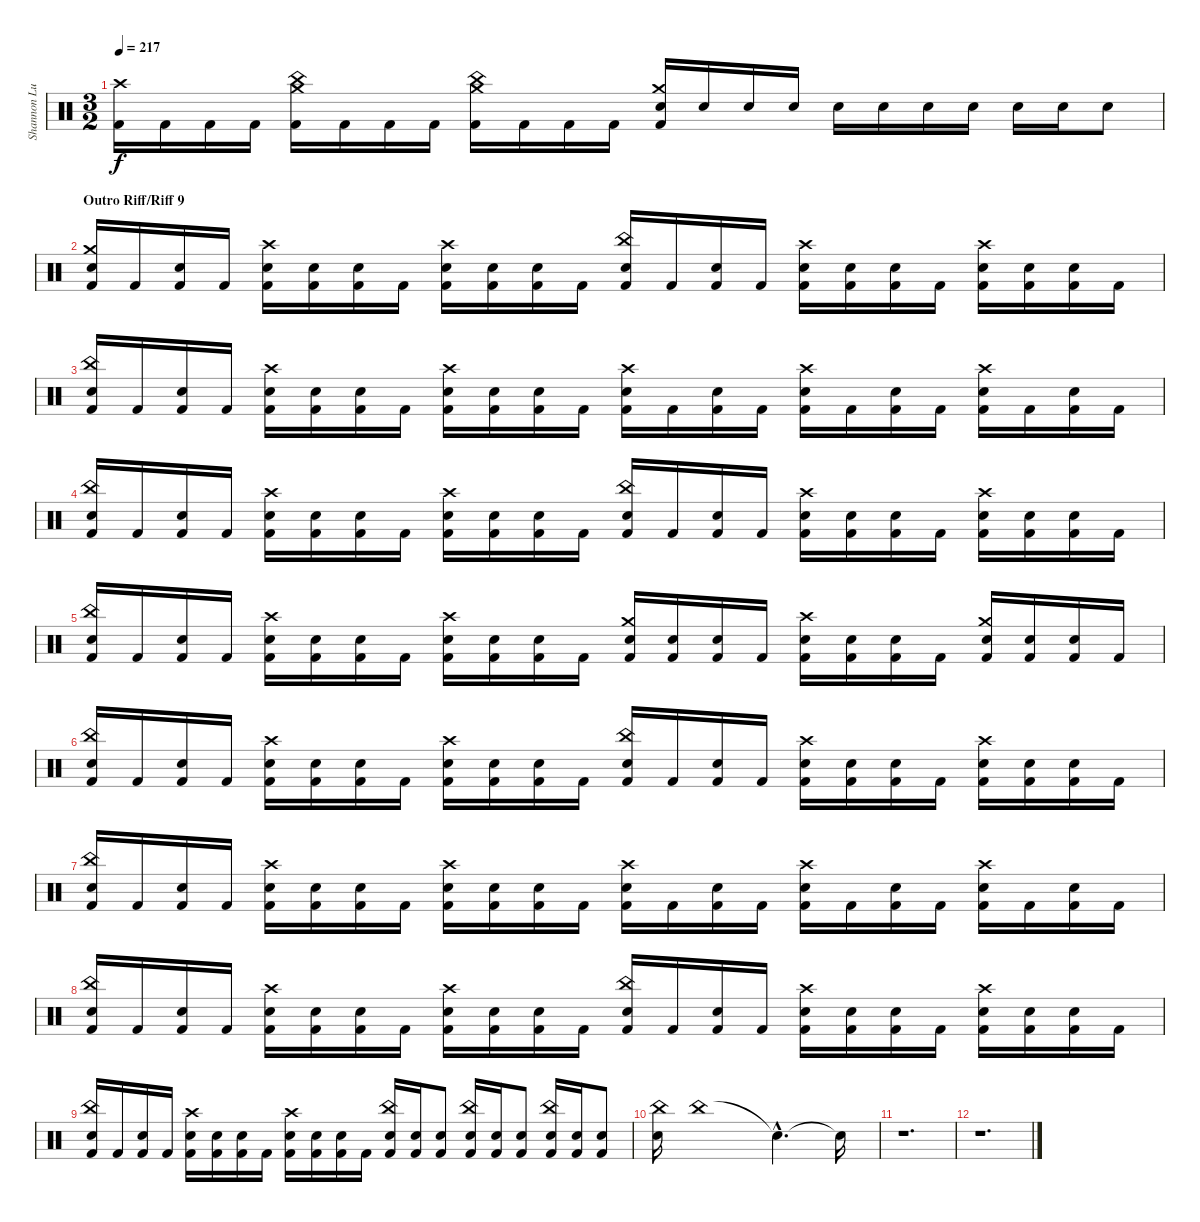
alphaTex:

\track ("Shannon Lucas (Drums)" "Shannon Lu") {instrument percussion}
\staff {score}
\articulation defaults
\ts (3 2)
\tempo 217
\clef neutral
\ks c
("Crash high (hit)" "Kick (hit) 2").16{dy f} "Kick (hit) 2".16 "Kick (hit) 2".16 "Kick (hit) 2".16 ("Crash medium (hit)" "China (hit)" "Kick (hit) 2").16 "Kick (hit) 2".16 "Kick (hit) 2".16 "Kick (hit) 2".16 ("Crash medium (hit)" "China (hit)" "Kick (hit) 2").16 "Kick (hit) 2".16 "Kick (hit) 2".16 "Kick (hit) 2".16 ("Snare (hit) 2" "Crash medium (hit)" "Kick (hit) 2").16 "Snare (hit) 2".16 "Snare (hit) 2".16 "Snare (hit) 2".16 "Snare (hit) 2".16 "Snare (hit) 2".16 "Snare (hit) 2".16 "Snare (hit) 2".16 "Snare (hit) 2".16 "Snare (hit) 2".16 "Snare (hit) 2".8 |
\section ("" "Outro Riff/Riff 9")
("Crash medium (hit)" "Snare (hit) 2" "Kick (hit) 2").16 "Kick (hit) 2".16 ("Snare (hit) 2" "Kick (hit) 2").16 "Kick (hit) 2".16 ("Crash high (hit)" "Snare (hit) 2" "Kick (hit) 2").16 ("Snare (hit) 2" "Kick (hit) 2").16 ("Snare (hit) 2" "Kick (hit) 2").16 "Kick (hit) 2".16 ("Crash high (hit)" "Snare (hit) 2" "Kick (hit) 2").16 ("Snare (hit) 2" "Kick (hit) 2").16 ("Snare (hit) 2" "Kick (hit) 2").16 "Kick (hit) 2".16 ("China (hit)" "Snare (hit) 2" "Kick (hit) 2").16 "Kick (hit) 2".16 ("Snare (hit) 2" "Kick (hit) 2").16 "Kick (hit) 2".16 ("Crash high (hit)" "Snare (hit) 2" "Kick (hit) 2").16 ("Snare (hit) 2" "Kick (hit) 2").16 ("Snare (hit) 2" "Kick (hit) 2").16 "Kick (hit) 2".16 ("Crash high (hit)" "Snare (hit) 2" "Kick (hit) 2").16 ("Snare (hit) 2" "Kick (hit) 2").16 ("Snare (hit) 2" "Kick (hit) 2").16 "Kick (hit) 2".16 |
("China (hit)" "Snare (hit) 2" "Kick (hit) 2").16 "Kick (hit) 2".16 ("Snare (hit) 2" "Kick (hit) 2").16 "Kick (hit) 2".16 ("Crash high (hit)" "Snare (hit) 2" "Kick (hit) 2").16 ("Snare (hit) 2" "Kick (hit) 2").16 ("Snare (hit) 2" "Kick (hit) 2").16 "Kick (hit) 2".16 ("Crash high (hit)" "Snare (hit) 2" "Kick (hit) 2").16 ("Snare (hit) 2" "Kick (hit) 2").16 ("Snare (hit) 2" "Kick (hit) 2").16 "Kick (hit) 2".16 ("Crash high (hit)" "Snare (hit) 2" "Kick (hit) 2").16 "Kick (hit) 2".16 ("Snare (hit) 2" "Kick (hit) 2").16 "Kick (hit) 2".16 ("Crash high (hit)" "Snare (hit) 2" "Kick (hit) 2").16 "Kick (hit) 2".16 ("Snare (hit) 2" "Kick (hit) 2").16 "Kick (hit) 2".16 ("Crash high (hit)" "Snare (hit) 2" "Kick (hit) 2").16 "Kick (hit) 2".16 ("Snare (hit) 2" "Kick (hit) 2").16 "Kick (hit) 2".16 |
("China (hit)" "Snare (hit) 2" "Kick (hit) 2").16 "Kick (hit) 2".16 ("Snare (hit) 2" "Kick (hit) 2").16 "Kick (hit) 2".16 ("Crash high (hit)" "Snare (hit) 2" "Kick (hit) 2").16 ("Snare (hit) 2" "Kick (hit) 2").16 ("Snare (hit) 2" "Kick (hit) 2").16 "Kick (hit) 2".16 ("Crash high (hit)" "Snare (hit) 2" "Kick (hit) 2").16 ("Snare (hit) 2" "Kick (hit) 2").16 ("Snare (hit) 2" "Kick (hit) 2").16 "Kick (hit) 2".16 ("China (hit)" "Snare (hit) 2" "Kick (hit) 2").16 "Kick (hit) 2".16 ("Snare (hit) 2" "Kick (hit) 2").16 "Kick (hit) 2".16 ("Crash high (hit)" "Snare (hit) 2" "Kick (hit) 2").16 ("Snare (hit) 2" "Kick (hit) 2").16 ("Snare (hit) 2" "Kick (hit) 2").16 "Kick (hit) 2".16 ("Crash high (hit)" "Snare (hit) 2" "Kick (hit) 2").16 ("Snare (hit) 2" "Kick (hit) 2").16 ("Snare (hit) 2" "Kick (hit) 2").16 "Kick (hit) 2".16 |
("China (hit)" "Snare (hit) 2" "Kick (hit) 2").16 "Kick (hit) 2".16 ("Snare (hit) 2" "Kick (hit) 2").16 "Kick (hit) 2".16 ("Crash high (hit)" "Snare (hit) 2" "Kick (hit) 2").16 ("Snare (hit) 2" "Kick (hit) 2").16 ("Snare (hit) 2" "Kick (hit) 2").16 "Kick (hit) 2".16 ("Crash high (hit)" "Snare (hit) 2" "Kick (hit) 2").16 ("Snare (hit) 2" "Kick (hit) 2").16 ("Snare (hit) 2" "Kick (hit) 2").16 "Kick (hit) 2".16 ("Crash medium (hit)" "Snare (hit) 2" "Kick (hit) 2").16 ("Snare (hit) 2" "Kick (hit) 2").16 ("Snare (hit) 2" "Kick (hit) 2").16 "Kick (hit) 2".16 ("Crash high (hit)" "Snare (hit) 2" "Kick (hit) 2").16 ("Snare (hit) 2" "Kick (hit) 2").16 ("Snare (hit) 2" "Kick (hit) 2").16 "Kick (hit) 2".16 ("Crash medium (hit)" "Snare (hit) 2" "Kick (hit) 2").16 ("Snare (hit) 2" "Kick (hit) 2").16 ("Snare (hit) 2" "Kick (hit) 2").16 "Kick (hit) 2".16 |
("China (hit)" "Snare (hit) 2" "Kick (hit) 2").16 "Kick (hit) 2".16 ("Snare (hit) 2" "Kick (hit) 2").16 "Kick (hit) 2".16 ("Crash high (hit)" "Snare (hit) 2" "Kick (hit) 2").16 ("Snare (hit) 2" "Kick (hit) 2").16 ("Snare (hit) 2" "Kick (hit) 2").16 "Kick (hit) 2".16 ("Crash high (hit)" "Snare (hit) 2" "Kick (hit) 2").16 ("Snare (hit) 2" "Kick (hit) 2").16 ("Snare (hit) 2" "Kick (hit) 2").16 "Kick (hit) 2".16 ("China (hit)" "Snare (hit) 2" "Kick (hit) 2").16 "Kick (hit) 2".16 ("Snare (hit) 2" "Kick (hit) 2").16 "Kick (hit) 2".16 ("Crash high (hit)" "Snare (hit) 2" "Kick (hit) 2").16 ("Snare (hit) 2" "Kick (hit) 2").16 ("Snare (hit) 2" "Kick (hit) 2").16 "Kick (hit) 2".16 ("Crash high (hit)" "Snare (hit) 2" "Kick (hit) 2").16 ("Snare (hit) 2" "Kick (hit) 2").16 ("Snare (hit) 2" "Kick (hit) 2").16 "Kick (hit) 2".16 |
("China (hit)" "Snare (hit) 2" "Kick (hit) 2").16 "Kick (hit) 2".16 ("Snare (hit) 2" "Kick (hit) 2").16 "Kick (hit) 2".16 ("Crash high (hit)" "Snare (hit) 2" "Kick (hit) 2").16 ("Snare (hit) 2" "Kick (hit) 2").16 ("Snare (hit) 2" "Kick (hit) 2").16 "Kick (hit) 2".16 ("Crash high (hit)" "Snare (hit) 2" "Kick (hit) 2").16 ("Snare (hit) 2" "Kick (hit) 2").16 ("Snare (hit) 2" "Kick (hit) 2").16 "Kick (hit) 2".16 ("Crash high (hit)" "Snare (hit) 2" "Kick (hit) 2").16 "Kick (hit) 2".16 ("Snare (hit) 2" "Kick (hit) 2").16 "Kick (hit) 2".16 ("Crash high (hit)" "Snare (hit) 2" "Kick (hit) 2").16 "Kick (hit) 2".16 ("Snare (hit) 2" "Kick (hit) 2").16 "Kick (hit) 2".16 ("Crash high (hit)" "Snare (hit) 2" "Kick (hit) 2").16 "Kick (hit) 2".16 ("Snare (hit) 2" "Kick (hit) 2").16 "Kick (hit) 2".16 |
("China (hit)" "Snare (hit) 2" "Kick (hit) 2").16 "Kick (hit) 2".16 ("Snare (hit) 2" "Kick (hit) 2").16 "Kick (hit) 2".16 ("Crash high (hit)" "Snare (hit) 2" "Kick (hit) 2").16 ("Snare (hit) 2" "Kick (hit) 2").16 ("Snare (hit) 2" "Kick (hit) 2").16 "Kick (hit) 2".16 ("Crash high (hit)" "Snare (hit) 2" "Kick (hit) 2").16 ("Snare (hit) 2" "Kick (hit) 2").16 ("Snare (hit) 2" "Kick (hit) 2").16 "Kick (hit) 2".16 ("China (hit)" "Snare (hit) 2" "Kick (hit) 2").16 "Kick (hit) 2".16 ("Snare (hit) 2" "Kick (hit) 2").16 "Kick (hit) 2".16 ("Crash high (hit)" "Snare (hit) 2" "Kick (hit) 2").16 ("Snare (hit) 2" "Kick (hit) 2").16 ("Snare (hit) 2" "Kick (hit) 2").16 "Kick (hit) 2".16 ("Crash high (hit)" "Snare (hit) 2" "Kick (hit) 2").16 ("Snare (hit) 2" "Kick (hit) 2").16 ("Snare (hit) 2" "Kick (hit) 2").16 "Kick (hit) 2".16 |
("China (hit)" "Snare (hit) 2" "Kick (hit) 2").16 "Kick (hit) 2".16 ("Snare (hit) 2" "Kick (hit) 2").16 "Kick (hit) 2".16 ("Crash high (hit)" "Snare (hit) 2" "Kick (hit) 2").16 ("Snare (hit) 2" "Kick (hit) 2").16 ("Snare (hit) 2" "Kick (hit) 2").16 "Kick (hit) 2".16 ("Crash high (hit)" "Snare (hit) 2" "Kick (hit) 2").16 ("Snare (hit) 2" "Kick (hit) 2").16 ("Snare (hit) 2" "Kick (hit) 2").16 "Kick (hit) 2".16 ("China (hit)" "Snare (hit) 2" "Kick (hit) 2").16 ("Snare (hit) 2" "Kick (hit) 2").16 ("Snare (hit) 2" "Kick (hit) 2").8 ("China (hit)" "Snare (hit) 2" "Kick (hit) 2").16 ("Snare (hit) 2" "Kick (hit) 2").16 ("Snare (hit) 2" "Kick (hit) 2").8 ("China (hit)" "Snare (hit) 2" "Kick (hit) 2").16 ("Snare (hit) 2" "Kick (hit) 2").16 ("Snare (hit) 2" "Kick (hit) 2").8 |
("China (hit)" "Snare (hit) 2").16 "China (hit)".1{balance 16} "Snare (hit)"{hac t}.4{d} "Snare (hit)"{t}.16 |
r.1{d} |
r.1{d}
